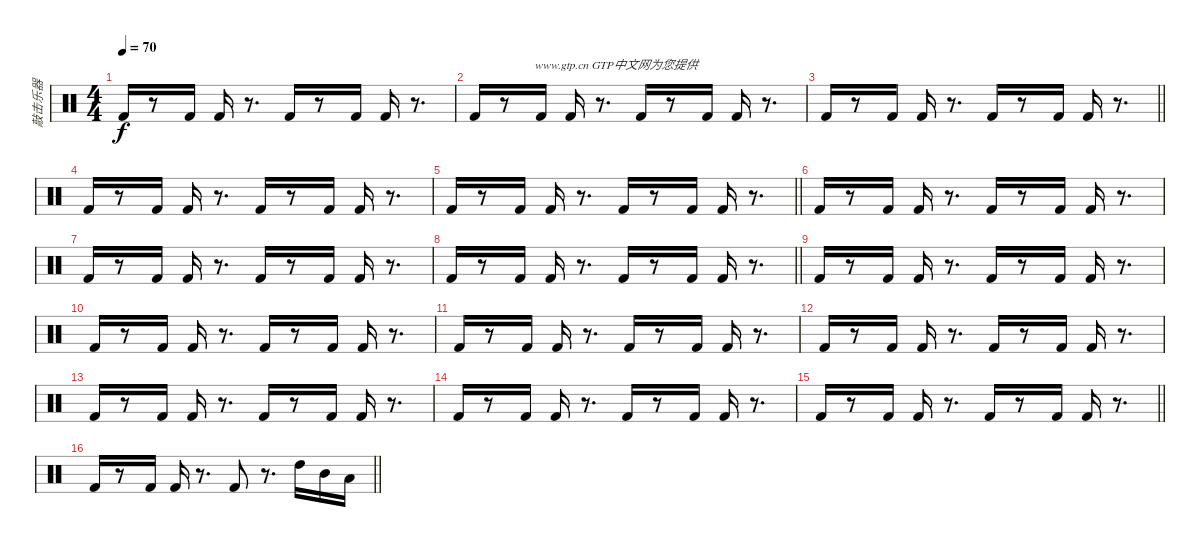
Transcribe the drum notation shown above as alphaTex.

\track ("敲击乐器" "敲击乐器") {instrument percussion}
\staff {score}
\articulation defaults
\ts (4 4)
\tempo 70
\clef neutral
\ks c "Kick (hit) 2".16{dy f}
r.8 "Kick (hit) 2".16 "Kick (hit) 2".16 r.8{d} "Kick (hit) 2".16 r.8 "Kick (hit) 2".16 "Kick (hit) 2".16 r.8{d} |
"Kick (hit) 2".16{txt "                    www.gtp.cn GTP中文网为您提供"} r.8 "Kick (hit) 2".16 "Kick (hit) 2".16 r.8{d} "Kick (hit) 2".16 r.8 "Kick (hit) 2".16 "Kick (hit) 2".16 r.8{d} |
\barLineRight lightlight "Kick (hit) 2".16
r.8 "Kick (hit) 2".16 "Kick (hit) 2".16 r.8{d} "Kick (hit) 2".16 r.8 "Kick (hit) 2".16 "Kick (hit) 2".16 r.8{d} |
"Kick (hit) 2".16 r.8 "Kick (hit) 2".16 "Kick (hit) 2".16 r.8{d} "Kick (hit) 2".16 r.8 "Kick (hit) 2".16 "Kick (hit) 2".16 r.8{d} |
\barLineRight lightlight "Kick (hit) 2".16
r.8 "Kick (hit) 2".16 "Kick (hit) 2".16 r.8{d} "Kick (hit) 2".16 r.8 "Kick (hit) 2".16 "Kick (hit) 2".16 r.8{d} |
"Kick (hit) 2".16 r.8 "Kick (hit) 2".16 "Kick (hit) 2".16 r.8{d} "Kick (hit) 2".16 r.8 "Kick (hit) 2".16 "Kick (hit) 2".16 r.8{d} |
"Kick (hit) 2".16 r.8 "Kick (hit) 2".16 "Kick (hit) 2".16 r.8{d} "Kick (hit) 2".16 r.8 "Kick (hit) 2".16 "Kick (hit) 2".16 r.8{d} |
\barLineRight lightlight "Kick (hit) 2".16
r.8 "Kick (hit) 2".16 "Kick (hit) 2".16 r.8{d} "Kick (hit) 2".16 r.8 "Kick (hit) 2".16 "Kick (hit) 2".16 r.8{d} |
"Kick (hit) 2".16 r.8 "Kick (hit) 2".16 "Kick (hit) 2".16 r.8{d} "Kick (hit) 2".16 r.8 "Kick (hit) 2".16 "Kick (hit) 2".16 r.8{d} |
"Kick (hit) 2".16 r.8 "Kick (hit) 2".16 "Kick (hit) 2".16 r.8{d} "Kick (hit) 2".16 r.8 "Kick (hit) 2".16 "Kick (hit) 2".16 r.8{d} |
"Kick (hit) 2".16 r.8 "Kick (hit) 2".16 "Kick (hit) 2".16 r.8{d} "Kick (hit) 2".16 r.8 "Kick (hit) 2".16 "Kick (hit) 2".16 r.8{d} |
"Kick (hit) 2".16 r.8 "Kick (hit) 2".16 "Kick (hit) 2".16 r.8{d} "Kick (hit) 2".16 r.8 "Kick (hit) 2".16 "Kick (hit) 2".16 r.8{d} |
"Kick (hit) 2".16 r.8 "Kick (hit) 2".16 "Kick (hit) 2".16 r.8{d} "Kick (hit) 2".16 r.8 "Kick (hit) 2".16 "Kick (hit) 2".16 r.8{d} |
"Kick (hit) 2".16 r.8 "Kick (hit) 2".16 "Kick (hit) 2".16 r.8{d} "Kick (hit) 2".16 r.8 "Kick (hit) 2".16 "Kick (hit) 2".16 r.8{d} |
\barLineRight lightlight "Kick (hit) 2".16
r.8 "Kick (hit) 2".16 "Kick (hit) 2".16 r.8{d} "Kick (hit) 2".16 r.8 "Kick (hit) 2".16 "Kick (hit) 2".16 r.8{d} |
\section ("" "")
\barLineRight lightlight "Kick (hit) 2".16
r.8 "Kick (hit) 2".16 "Kick (hit) 2".16 r.8{d} "Kick (hit) 2".8 r.8{d} "High Tom (hit)".16 "Mid Tom (hit)".16 "Low Tom (hit)".16
